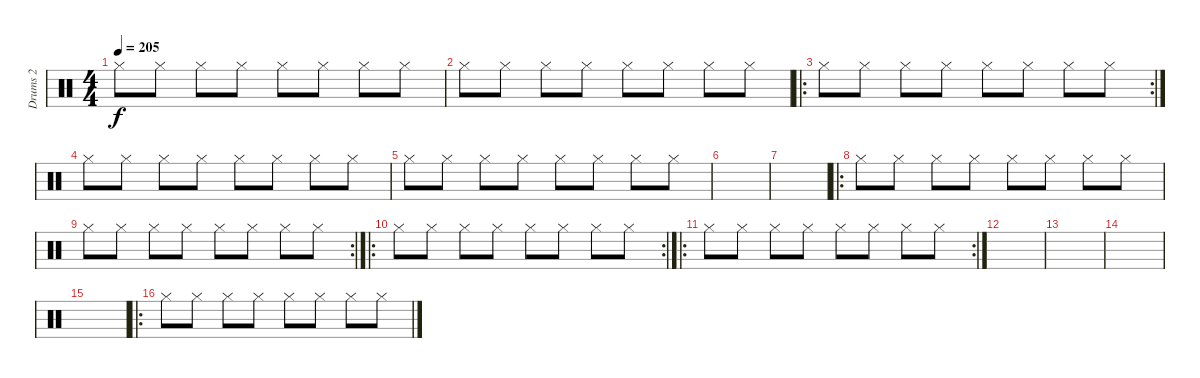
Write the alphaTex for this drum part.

\track ("Drums 2" "Drums 2") {instrument percussion}
\staff {score}
\articulation defaults
\ts (4 4)
\tempo 205
\clef neutral
\ks c "Hi-Hat (closed)".8{dy f} "Hi-Hat (closed)".8 "Hi-Hat (closed)".8 "Hi-Hat (closed)".8 "Hi-Hat (closed)".8 "Hi-Hat (closed)".8 "Hi-Hat (closed)".8 "Hi-Hat (closed)".8
|
"Hi-Hat (closed)".8 "Hi-Hat (closed)".8 "Hi-Hat (closed)".8 "Hi-Hat (closed)".8 "Hi-Hat (closed)".8 "Hi-Hat (closed)".8 "Hi-Hat (closed)".8 "Hi-Hat (closed)".8 |
\ro
\rc 2 "Hi-Hat (closed)".8 "Hi-Hat (closed)".8 "Hi-Hat (closed)".8 "Hi-Hat (closed)".8 "Hi-Hat (closed)".8 "Hi-Hat (closed)".8 "Hi-Hat (closed)".8 "Hi-Hat (closed)".8
|
"Hi-Hat (closed)".8 "Hi-Hat (closed)".8 "Hi-Hat (closed)".8 "Hi-Hat (closed)".8 "Hi-Hat (closed)".8 "Hi-Hat (closed)".8 "Hi-Hat (closed)".8 "Hi-Hat (closed)".8 |
"Hi-Hat (closed)".8 "Hi-Hat (closed)".8 "Hi-Hat (closed)".8 "Hi-Hat (closed)".8 "Hi-Hat (closed)".8 "Hi-Hat (closed)".8 "Hi-Hat (closed)".8 "Hi-Hat (closed)".8 |
|
|
\ro "Hi-Hat (closed)".8 "Hi-Hat (closed)".8 "Hi-Hat (closed)".8 "Hi-Hat (closed)".8 "Hi-Hat (closed)".8 "Hi-Hat (closed)".8 "Hi-Hat (closed)".8 "Hi-Hat (closed)".8
|
\rc 2 "Hi-Hat (closed)".8 "Hi-Hat (closed)".8 "Hi-Hat (closed)".8 "Hi-Hat (closed)".8 "Hi-Hat (closed)".8 "Hi-Hat (closed)".8 "Hi-Hat (closed)".8 "Hi-Hat (closed)".8
|
\ro
\rc 2 "Hi-Hat (closed)".8 "Hi-Hat (closed)".8 "Hi-Hat (closed)".8 "Hi-Hat (closed)".8 "Hi-Hat (closed)".8 "Hi-Hat (closed)".8 "Hi-Hat (closed)".8 "Hi-Hat (closed)".8
|
\ro
\rc 2 "Hi-Hat (closed)".8 "Hi-Hat (closed)".8 "Hi-Hat (closed)".8 "Hi-Hat (closed)".8 "Hi-Hat (closed)".8 "Hi-Hat (closed)".8 "Hi-Hat (closed)".8 "Hi-Hat (closed)".8
|
|
|
|
|
\ro "Hi-Hat (closed)".8 "Hi-Hat (closed)".8 "Hi-Hat (closed)".8 "Hi-Hat (closed)".8 "Hi-Hat (closed)".8 "Hi-Hat (closed)".8 "Hi-Hat (closed)".8 "Hi-Hat (closed)".8
